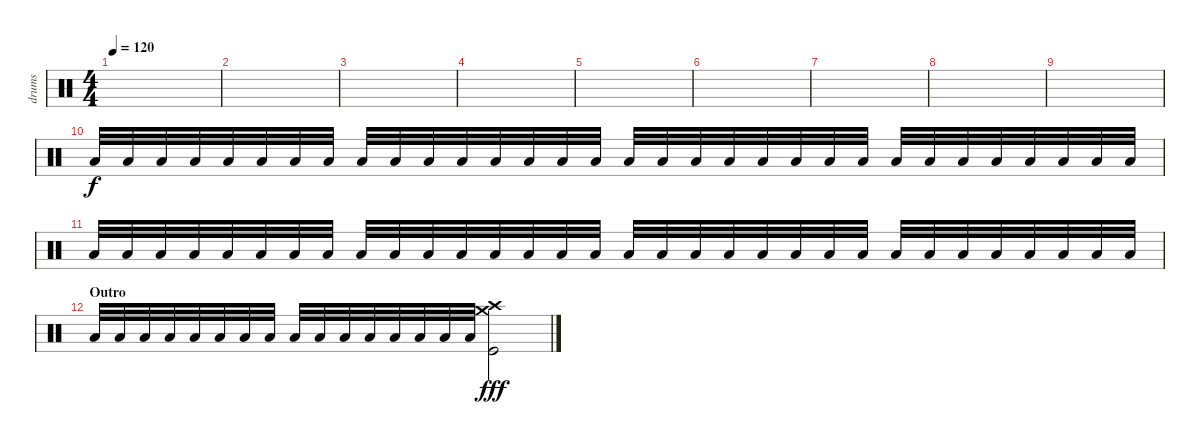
\track ("drums" "drums") {instrument percussion}
\staff {score}
\articulation defaults
\ts (4 4)
\tempo 120
\clef neutral
\ks c
|
|
|
|
|
|
|
|
|
"Low Tom (hit)".32{volume 2} "Low Tom (hit)".32 "Low Tom (hit)".32 "Low Tom (hit)".32 "Low Tom (hit)".32 "Low Tom (hit)".32 "Low Tom (hit)".32 "Low Tom (hit)".32 "Low Tom (hit)".32{volume 4} "Low Tom (hit)".32 "Low Tom (hit)".32 "Low Tom (hit)".32 "Low Tom (hit)".32 "Low Tom (hit)".32 "Low Tom (hit)".32 "Low Tom (hit)".32 "Low Tom (hit)".32{volume 6} "Low Tom (hit)".32 "Low Tom (hit)".32 "Low Tom (hit)".32 "Low Tom (hit)".32 "Low Tom (hit)".32 "Low Tom (hit)".32 "Low Tom (hit)".32 "Low Tom (hit)".32{volume 8} "Low Tom (hit)".32 "Low Tom (hit)".32 "Low Tom (hit)".32 "Low Tom (hit)".32 "Low Tom (hit)".32 "Low Tom (hit)".32 "Low Tom (hit)".32 |
"Low Tom (hit)".32{volume 10} "Low Tom (hit)".32 "Low Tom (hit)".32 "Low Tom (hit)".32 "Low Tom (hit)".32 "Low Tom (hit)".32 "Low Tom (hit)".32 "Low Tom (hit)".32 "Low Tom (hit)".32{volume 12} "Low Tom (hit)".32 "Low Tom (hit)".32 "Low Tom (hit)".32 "Low Tom (hit)".32 "Low Tom (hit)".32 "Low Tom (hit)".32 "Low Tom (hit)".32 "Low Tom (hit)".32{volume 14} "Low Tom (hit)".32 "Low Tom (hit)".32 "Low Tom (hit)".32 "Low Tom (hit)".32 "Low Tom (hit)".32 "Low Tom (hit)".32 "Low Tom (hit)".32 "Low Tom (hit)".32{volume 16} "Low Tom (hit)".32 "Low Tom (hit)".32 "Low Tom (hit)".32 "Low Tom (hit)".32 "Low Tom (hit)".32 "Low Tom (hit)".32 "Low Tom (hit)".32 |
\section ("" "Outro")
"Low Tom (hit)".32 "Low Tom (hit)".32 "Low Tom (hit)".32 "Low Tom (hit)".32 "Low Tom (hit)".32 "Low Tom (hit)".32 "Low Tom (hit)".32 "Low Tom (hit)".32 "Low Tom (hit)".32 "Low Tom (hit)".32 "Low Tom (hit)".32 "Low Tom (hit)".32 "Low Tom (hit)".32 "Low Tom (hit)".32 "Low Tom (hit)".32 "Low Tom (hit)".32 ("Crash medium (hit)" "Crash high (hit)" "Kick (hit)").2{dy fff}
